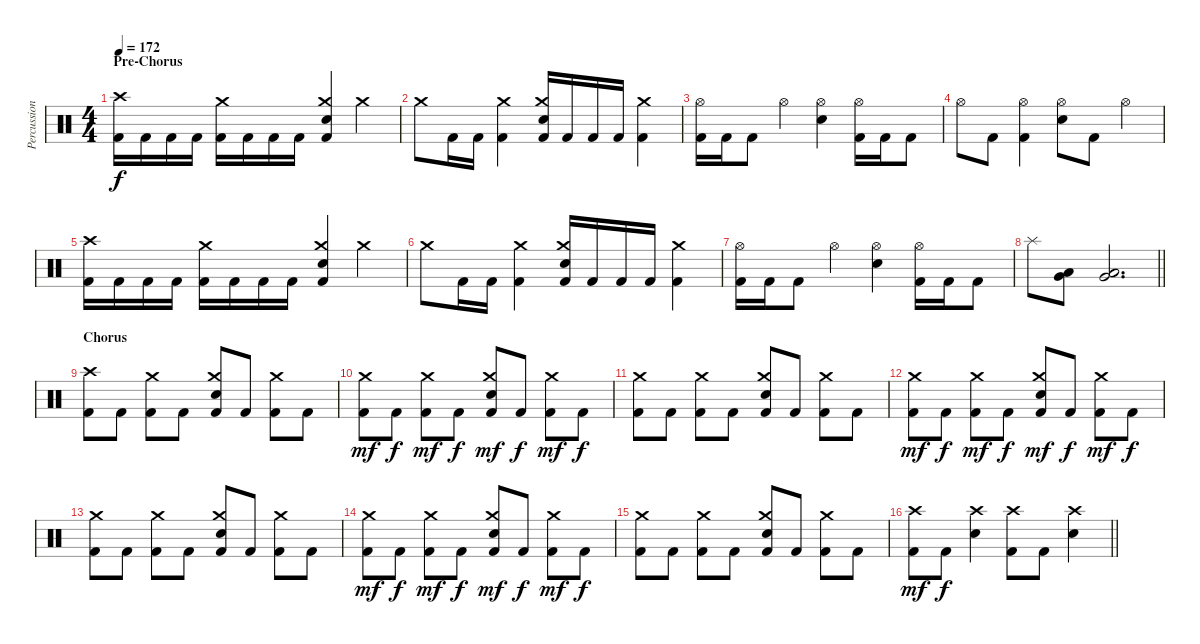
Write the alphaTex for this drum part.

\track ("Percussion" "Percussion") {instrument percussion}
\staff {score}
\articulation defaults
\ts (4 4)
\section ("" "Pre-Chorus")
\tempo 172
\clef neutral
\ks c
("Crash high (hit)" "Kick (hit) 2").16{dy f} "Kick (hit) 2".16 "Kick (hit) 2".16 "Kick (hit) 2".16 ("Crash medium (hit)" "Kick (hit) 2").16 "Kick (hit) 2".16 "Kick (hit) 2".16 "Kick (hit) 2".16 ("Crash medium (hit)" "Snare (hit) 2" "Kick (hit) 2").4 "Crash medium (hit)".4 |
"Crash medium (hit)".8 "Kick (hit) 2".16 "Kick (hit) 2".16 ("Crash medium (hit)" "Kick (hit) 2").4 ("Crash medium (hit)" "Snare (hit) 2" "Kick (hit) 2").16 "Kick (hit) 2".16 "Kick (hit) 2".16 "Kick (hit) 2".16 ("Crash medium (hit)" "Kick (hit) 2").4 |
("Hi-Hat (open)" "Kick (hit) 2").16 "Kick (hit) 2".16 "Kick (hit) 2".8 "Hi-Hat (open)".4 ("Hi-Hat (open)" "Snare (hit) 2").4 ("Hi-Hat (open)" "Kick (hit) 2").16 "Kick (hit) 2".16 "Kick (hit) 2".8 |
"Hi-Hat (open)".8 "Kick (hit) 2".8 ("Hi-Hat (open)" "Kick (hit) 2").4 ("Hi-Hat (open)" "Snare (hit) 2").8 "Kick (hit) 2".8 "Hi-Hat (open)".4 |
("Crash high (hit)" "Kick (hit) 2").16 "Kick (hit) 2".16 "Kick (hit) 2".16 "Kick (hit) 2".16 ("Crash medium (hit)" "Kick (hit) 2").16 "Kick (hit) 2".16 "Kick (hit) 2".16 "Kick (hit) 2".16 ("Crash medium (hit)" "Snare (hit) 2" "Kick (hit) 2").4 "Crash medium (hit)".4 |
"Crash medium (hit)".8 "Kick (hit) 2".16 "Kick (hit) 2".16 ("Crash medium (hit)" "Kick (hit) 2").4 ("Crash medium (hit)" "Snare (hit) 2" "Kick (hit) 2").16 "Kick (hit) 2".16 "Kick (hit) 2".16 "Kick (hit) 2".16 ("Crash medium (hit)" "Kick (hit) 2").4 |
("Hi-Hat (open)" "Kick (hit) 2").16 "Kick (hit) 2".16 "Kick (hit) 2".8 "Hi-Hat (open)".4 ("Hi-Hat (open)" "Snare (hit) 2").4 ("Hi-Hat (open)" "Kick (hit) 2").16 "Kick (hit) 2".16 "Kick (hit) 2".8 |
\barLineRight lightlight "Splash (hit)".8
("Very Low Tom (hit)" "Low Floor Tom (hit)").8 ("Very Low Tom (hit)" "Low Floor Tom (hit)").2{d} |
\section ("" "Chorus")
("Crash high (hit)" "Kick (hit) 2").8 "Kick (hit) 2".8 ("Crash medium (hit)" "Kick (hit) 2").8 "Kick (hit) 2".8 ("Crash medium (hit)" "Snare (hit) 2" "Kick (hit) 2").8 "Kick (hit) 2".8 ("Crash medium (hit)" "Kick (hit) 2").8 "Kick (hit) 2".8 |
("Crash medium (hit)" "Kick (hit) 2").8{dy mf} "Kick (hit) 2".8{dy f} ("Crash medium (hit)" "Kick (hit) 2").8{dy mf} "Kick (hit) 2".8{dy f} ("Crash medium (hit)" "Snare (hit) 2" "Kick (hit) 2").8{dy mf} "Kick (hit) 2".8{dy f} ("Crash medium (hit)" "Kick (hit) 2").8{dy mf} "Kick (hit) 2".8{dy f} |
("Crash medium (hit)" "Kick (hit) 2").8 "Kick (hit) 2".8 ("Crash medium (hit)" "Kick (hit) 2").8 "Kick (hit) 2".8 ("Crash medium (hit)" "Snare (hit) 2" "Kick (hit) 2").8 "Kick (hit) 2".8 ("Crash medium (hit)" "Kick (hit) 2").8 "Kick (hit) 2".8 |
("Crash medium (hit)" "Kick (hit) 2").8{dy mf} "Kick (hit) 2".8{dy f} ("Crash medium (hit)" "Kick (hit) 2").8{dy mf} "Kick (hit) 2".8{dy f} ("Crash medium (hit)" "Snare (hit) 2" "Kick (hit) 2").8{dy mf} "Kick (hit) 2".8{dy f} ("Crash medium (hit)" "Kick (hit) 2").8{dy mf} "Kick (hit) 2".8{dy f} |
("Crash medium (hit)" "Kick (hit) 2").8 "Kick (hit) 2".8 ("Crash medium (hit)" "Kick (hit) 2").8 "Kick (hit) 2".8 ("Crash medium (hit)" "Snare (hit) 2" "Kick (hit) 2").8 "Kick (hit) 2".8 ("Crash medium (hit)" "Kick (hit) 2").8 "Kick (hit) 2".8 |
("Crash medium (hit)" "Kick (hit) 2").8{dy mf} "Kick (hit) 2".8{dy f} ("Crash medium (hit)" "Kick (hit) 2").8{dy mf} "Kick (hit) 2".8{dy f} ("Crash medium (hit)" "Snare (hit) 2" "Kick (hit) 2").8{dy mf} "Kick (hit) 2".8{dy f} ("Crash medium (hit)" "Kick (hit) 2").8{dy mf} "Kick (hit) 2".8{dy f} |
("Crash medium (hit)" "Kick (hit) 2").8 "Kick (hit) 2".8 ("Crash medium (hit)" "Kick (hit) 2").8 "Kick (hit) 2".8 ("Crash medium (hit)" "Snare (hit) 2" "Kick (hit) 2").8 "Kick (hit) 2".8 ("Crash medium (hit)" "Kick (hit) 2").8 "Kick (hit) 2".8 |
\barLineRight lightlight
("Crash high (hit)" "Kick (hit) 2").8{dy mf} "Kick (hit) 2".8{dy f} ("Crash high (hit)" "Snare (hit) 2").4 ("Crash high (hit)" "Kick (hit) 2").8 "Kick (hit) 2".8 ("Crash high (hit)" "Snare (hit) 2").4
